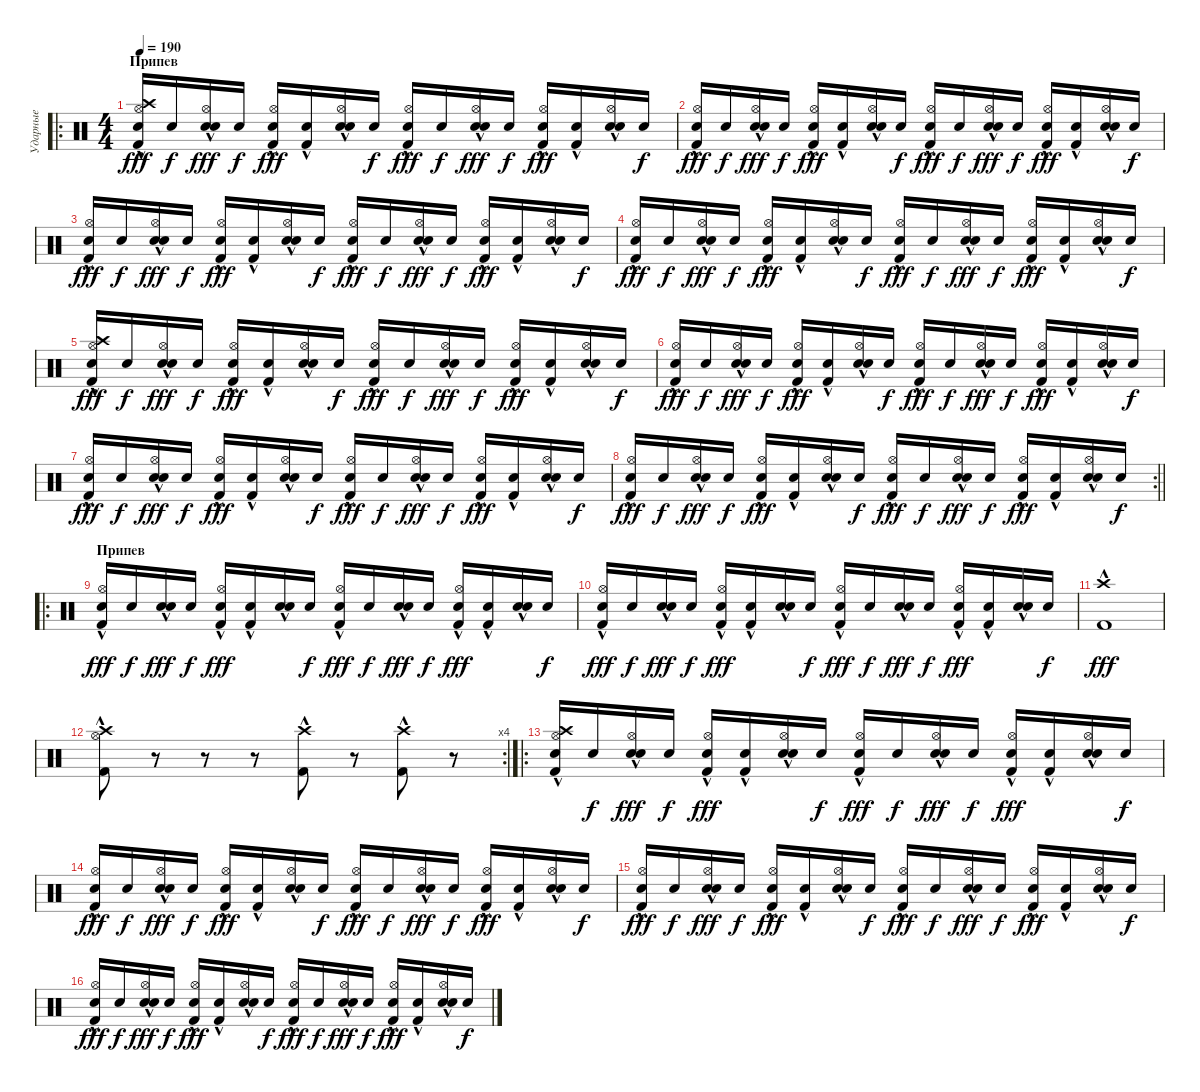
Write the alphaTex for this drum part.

\track ("Ударные" "Ударные") {instrument percussion}
\staff {score}
\articulation defaults
\ro
\ts (4 4)
\section ("" "Припев")
\tempo 190
\clef neutral
\ks c
("Snare (hit)" "Crash high (hit)"{hac} "Hi-Hat (open)"{hac} "Kick (hit) 2"{hac}).16{dy fff} "Snare (hit)".16{dy f} ("Snare (hit)" "Hi-Hat (open)"{hac} "Electric Snare (hit)"{hac}).16{dy fff} "Snare (hit)".16{dy f} ("Snare (hit)" "Hi-Hat (open)"{hac} "Kick (hit) 2"{hac}).16{dy fff} ("Snare (hit)" "Kick (hit) 2"{hac}).16 ("Snare (hit)" "Hi-Hat (open)"{hac} "Electric Snare (hit)"{hac}).16 "Snare (hit)".16{dy f} ("Snare (hit)" "Hi-Hat (open)"{hac} "Kick (hit) 2"{hac}).16{dy fff} "Snare (hit)".16{dy f} ("Snare (hit)" "Hi-Hat (open)"{hac} "Electric Snare (hit)"{hac}).16{dy fff} "Snare (hit)".16{dy f} ("Snare (hit)" "Hi-Hat (open)"{hac} "Kick (hit) 2"{hac}).16{dy fff} ("Snare (hit)" "Kick (hit) 2"{hac}).16 ("Snare (hit)" "Hi-Hat (open)"{hac} "Electric Snare (hit)"{hac}).16 "Snare (hit)".16{dy f} |
("Snare (hit)" "Hi-Hat (open)"{hac} "Kick (hit) 2"{hac}).16{dy fff} "Snare (hit)".16{dy f} ("Snare (hit)" "Hi-Hat (open)"{hac} "Electric Snare (hit)"{hac}).16{dy fff} "Snare (hit)".16{dy f} ("Snare (hit)" "Hi-Hat (open)"{hac} "Kick (hit) 2"{hac}).16{dy fff} ("Snare (hit)" "Kick (hit) 2"{hac}).16 ("Snare (hit)" "Hi-Hat (open)"{hac} "Electric Snare (hit)"{hac}).16 "Snare (hit)".16{dy f} ("Snare (hit)" "Hi-Hat (open)"{hac} "Kick (hit) 2"{hac}).16{dy fff} "Snare (hit)".16{dy f} ("Snare (hit)" "Hi-Hat (open)"{hac} "Electric Snare (hit)"{hac}).16{dy fff} "Snare (hit)".16{dy f} ("Snare (hit)" "Hi-Hat (open)"{hac} "Kick (hit) 2"{hac}).16{dy fff} ("Snare (hit)" "Kick (hit) 2"{hac}).16 ("Snare (hit)" "Hi-Hat (open)"{hac} "Electric Snare (hit)"{hac}).16 "Snare (hit)".16{dy f} |
("Snare (hit)" "Hi-Hat (open)"{hac} "Kick (hit) 2"{hac}).16{dy fff} "Snare (hit)".16{dy f} ("Snare (hit)" "Hi-Hat (open)"{hac} "Electric Snare (hit)"{hac}).16{dy fff} "Snare (hit)".16{dy f} ("Snare (hit)" "Hi-Hat (open)"{hac} "Kick (hit) 2"{hac}).16{dy fff} ("Snare (hit)" "Kick (hit) 2"{hac}).16 ("Snare (hit)" "Hi-Hat (open)"{hac} "Electric Snare (hit)"{hac}).16 "Snare (hit)".16{dy f} ("Snare (hit)" "Hi-Hat (open)"{hac} "Kick (hit) 2"{hac}).16{dy fff} "Snare (hit)".16{dy f} ("Snare (hit)" "Hi-Hat (open)"{hac} "Electric Snare (hit)"{hac}).16{dy fff} "Snare (hit)".16{dy f} ("Snare (hit)" "Hi-Hat (open)"{hac} "Kick (hit) 2"{hac}).16{dy fff} ("Snare (hit)" "Kick (hit) 2"{hac}).16 ("Snare (hit)" "Hi-Hat (open)"{hac} "Electric Snare (hit)"{hac}).16 "Snare (hit)".16{dy f} |
("Snare (hit)" "Hi-Hat (open)"{hac} "Kick (hit) 2"{hac}).16{dy fff} "Snare (hit)".16{dy f} ("Snare (hit)" "Hi-Hat (open)"{hac} "Electric Snare (hit)"{hac}).16{dy fff} "Snare (hit)".16{dy f} ("Snare (hit)" "Hi-Hat (open)"{hac} "Kick (hit) 2"{hac}).16{dy fff} ("Snare (hit)" "Kick (hit) 2"{hac}).16 ("Snare (hit)" "Hi-Hat (open)"{hac} "Electric Snare (hit)"{hac}).16 "Snare (hit)".16{dy f} ("Snare (hit)" "Hi-Hat (open)"{hac} "Kick (hit) 2"{hac}).16{dy fff} "Snare (hit)".16{dy f} ("Snare (hit)" "Hi-Hat (open)"{hac} "Electric Snare (hit)"{hac}).16{dy fff} "Snare (hit)".16{dy f} ("Snare (hit)" "Hi-Hat (open)"{hac} "Kick (hit) 2"{hac}).16{dy fff} ("Snare (hit)" "Kick (hit) 2"{hac}).16 ("Snare (hit)" "Hi-Hat (open)"{hac} "Electric Snare (hit)"{hac}).16 "Snare (hit)".16{dy f} |
("Snare (hit)" "Crash high (hit)"{hac} "Hi-Hat (open)"{hac} "Kick (hit) 2"{hac}).16{dy fff} "Snare (hit)".16{dy f} ("Snare (hit)" "Hi-Hat (open)"{hac} "Electric Snare (hit)"{hac}).16{dy fff} "Snare (hit)".16{dy f} ("Snare (hit)" "Hi-Hat (open)"{hac} "Kick (hit) 2"{hac}).16{dy fff} ("Snare (hit)" "Kick (hit) 2"{hac}).16 ("Snare (hit)" "Hi-Hat (open)"{hac} "Electric Snare (hit)"{hac}).16 "Snare (hit)".16{dy f} ("Snare (hit)" "Hi-Hat (open)"{hac} "Kick (hit) 2"{hac}).16{dy fff} "Snare (hit)".16{dy f} ("Snare (hit)" "Hi-Hat (open)"{hac} "Electric Snare (hit)"{hac}).16{dy fff} "Snare (hit)".16{dy f} ("Snare (hit)" "Hi-Hat (open)"{hac} "Kick (hit) 2"{hac}).16{dy fff} ("Snare (hit)" "Kick (hit) 2"{hac}).16 ("Snare (hit)" "Hi-Hat (open)"{hac} "Electric Snare (hit)"{hac}).16 "Snare (hit)".16{dy f} |
("Snare (hit)" "Hi-Hat (open)"{hac} "Kick (hit) 2"{hac}).16{dy fff} "Snare (hit)".16{dy f} ("Snare (hit)" "Hi-Hat (open)"{hac} "Electric Snare (hit)"{hac}).16{dy fff} "Snare (hit)".16{dy f} ("Snare (hit)" "Hi-Hat (open)"{hac} "Kick (hit) 2"{hac}).16{dy fff} ("Snare (hit)" "Kick (hit) 2"{hac}).16 ("Snare (hit)" "Hi-Hat (open)"{hac} "Electric Snare (hit)"{hac}).16 "Snare (hit)".16{dy f} ("Snare (hit)" "Hi-Hat (open)"{hac} "Kick (hit) 2"{hac}).16{dy fff} "Snare (hit)".16{dy f} ("Snare (hit)" "Hi-Hat (open)"{hac} "Electric Snare (hit)"{hac}).16{dy fff} "Snare (hit)".16{dy f} ("Snare (hit)" "Hi-Hat (open)"{hac} "Kick (hit) 2"{hac}).16{dy fff} ("Snare (hit)" "Kick (hit) 2"{hac}).16 ("Snare (hit)" "Hi-Hat (open)"{hac} "Electric Snare (hit)"{hac}).16 "Snare (hit)".16{dy f} |
("Snare (hit)" "Hi-Hat (open)"{hac} "Kick (hit) 2"{hac}).16{dy fff} "Snare (hit)".16{dy f} ("Snare (hit)" "Hi-Hat (open)"{hac} "Electric Snare (hit)"{hac}).16{dy fff} "Snare (hit)".16{dy f} ("Snare (hit)" "Hi-Hat (open)"{hac} "Kick (hit) 2"{hac}).16{dy fff} ("Snare (hit)" "Kick (hit) 2"{hac}).16 ("Snare (hit)" "Hi-Hat (open)"{hac} "Electric Snare (hit)"{hac}).16 "Snare (hit)".16{dy f} ("Snare (hit)" "Hi-Hat (open)"{hac} "Kick (hit) 2"{hac}).16{dy fff} "Snare (hit)".16{dy f} ("Snare (hit)" "Hi-Hat (open)"{hac} "Electric Snare (hit)"{hac}).16{dy fff} "Snare (hit)".16{dy f} ("Snare (hit)" "Hi-Hat (open)"{hac} "Kick (hit) 2"{hac}).16{dy fff} ("Snare (hit)" "Kick (hit) 2"{hac}).16 ("Snare (hit)" "Hi-Hat (open)"{hac} "Electric Snare (hit)"{hac}).16 "Snare (hit)".16{dy f} |
\rc 2
\barLineRight lightlight
("Snare (hit)" "Hi-Hat (open)"{hac} "Kick (hit) 2"{hac}).16{dy fff} "Snare (hit)".16{dy f} ("Snare (hit)" "Hi-Hat (open)"{hac} "Electric Snare (hit)"{hac}).16{dy fff} "Snare (hit)".16{dy f} ("Snare (hit)" "Hi-Hat (open)"{hac} "Kick (hit) 2"{hac}).16{dy fff} ("Snare (hit)" "Kick (hit) 2"{hac}).16 ("Snare (hit)" "Hi-Hat (open)"{hac} "Electric Snare (hit)"{hac}).16 "Snare (hit)".16{dy f} ("Snare (hit)" "Hi-Hat (open)"{hac} "Kick (hit) 2"{hac}).16{dy fff} "Snare (hit)".16{dy f} ("Snare (hit)" "Hi-Hat (open)"{hac} "Electric Snare (hit)"{hac}).16{dy fff} "Snare (hit)".16{dy f} ("Snare (hit)" "Hi-Hat (open)"{hac} "Kick (hit) 2"{hac}).16{dy fff} ("Snare (hit)" "Kick (hit) 2"{hac}).16 ("Snare (hit)" "Hi-Hat (open)"{hac} "Electric Snare (hit)"{hac}).16 "Snare (hit)".16{dy f} |
\ro
\section ("" "Припев")
("Snare (hit)" "Hi-Hat (open)"{hac} "Kick (hit) 2"{hac}).16{dy fff} "Snare (hit)".16{dy f} ("Snare (hit)" "Electric Snare (hit)"{hac}).16{dy fff} "Snare (hit)".16{dy f} ("Snare (hit)" "Hi-Hat (open)"{hac} "Kick (hit) 2"{hac}).16{dy fff} ("Snare (hit)" "Kick (hit) 2"{hac}).16 ("Snare (hit)" "Electric Snare (hit)"{hac}).16 "Snare (hit)".16{dy f} ("Snare (hit)" "Hi-Hat (open)"{hac} "Kick (hit) 2"{hac}).16{dy fff} "Snare (hit)".16{dy f} ("Snare (hit)" "Electric Snare (hit)"{hac}).16{dy fff} "Snare (hit)".16{dy f} ("Snare (hit)" "Hi-Hat (open)"{hac} "Kick (hit) 2"{hac}).16{dy fff} ("Snare (hit)" "Kick (hit) 2"{hac}).16 ("Snare (hit)" "Electric Snare (hit)"{hac}).16 "Snare (hit)".16{dy f} |
("Snare (hit)" "Hi-Hat (open)"{hac} "Kick (hit) 2"{hac}).16{dy fff} "Snare (hit)".16{dy f} ("Snare (hit)" "Electric Snare (hit)"{hac}).16{dy fff} "Snare (hit)".16{dy f} ("Snare (hit)" "Hi-Hat (open)"{hac} "Kick (hit) 2"{hac}).16{dy fff} ("Snare (hit)" "Kick (hit) 2"{hac}).16 ("Snare (hit)" "Electric Snare (hit)"{hac}).16 "Snare (hit)".16{dy f} ("Snare (hit)" "Hi-Hat (open)"{hac} "Kick (hit) 2"{hac}).16{dy fff} "Snare (hit)".16{dy f} ("Snare (hit)" "Electric Snare (hit)"{hac}).16{dy fff} "Snare (hit)".16{dy f} ("Snare (hit)" "Hi-Hat (open)"{hac} "Kick (hit) 2"{hac}).16{dy fff} ("Snare (hit)" "Kick (hit) 2"{hac}).16 ("Snare (hit)" "Electric Snare (hit)"{hac}).16 "Snare (hit)".16{dy f} |
("Crash high (hit)"{hac} "Kick (hit) 2"{hac}).1{dy fff} |
\rc 4
("Crash high (hit)"{hac} "Hi-Hat (open)" "Kick (hit) 2"{hac}).8 r.8 r.8 r.8 ("Crash high (hit)"{hac} "Kick (hit) 2"{hac}).8 r.8 ("Crash high (hit)"{hac} "Kick (hit) 2"{hac}).8 r.8 |
\ro
("Snare (hit)" "Crash high (hit)"{hac} "Hi-Hat (open)"{hac} "Kick (hit) 2"{hac}).16 "Snare (hit)".16{dy f} ("Snare (hit)" "Hi-Hat (open)"{hac} "Electric Snare (hit)"{hac}).16{dy fff} "Snare (hit)".16{dy f} ("Snare (hit)" "Hi-Hat (open)"{hac} "Kick (hit) 2"{hac}).16{dy fff} ("Snare (hit)" "Kick (hit) 2"{hac}).16 ("Snare (hit)" "Hi-Hat (open)"{hac} "Electric Snare (hit)"{hac}).16 "Snare (hit)".16{dy f} ("Snare (hit)" "Hi-Hat (open)"{hac} "Kick (hit) 2"{hac}).16{dy fff} "Snare (hit)".16{dy f} ("Snare (hit)" "Hi-Hat (open)"{hac} "Electric Snare (hit)"{hac}).16{dy fff} "Snare (hit)".16{dy f} ("Snare (hit)" "Hi-Hat (open)"{hac} "Kick (hit) 2"{hac}).16{dy fff} ("Snare (hit)" "Kick (hit) 2"{hac}).16 ("Snare (hit)" "Hi-Hat (open)"{hac} "Electric Snare (hit)"{hac}).16 "Snare (hit)".16{dy f} |
("Snare (hit)" "Hi-Hat (open)"{hac} "Kick (hit) 2"{hac}).16{dy fff} "Snare (hit)".16{dy f} ("Snare (hit)" "Hi-Hat (open)"{hac} "Electric Snare (hit)"{hac}).16{dy fff} "Snare (hit)".16{dy f} ("Snare (hit)" "Hi-Hat (open)"{hac} "Kick (hit) 2"{hac}).16{dy fff} ("Snare (hit)" "Kick (hit) 2"{hac}).16 ("Snare (hit)" "Hi-Hat (open)"{hac} "Electric Snare (hit)"{hac}).16 "Snare (hit)".16{dy f} ("Snare (hit)" "Hi-Hat (open)"{hac} "Kick (hit) 2"{hac}).16{dy fff} "Snare (hit)".16{dy f} ("Snare (hit)" "Hi-Hat (open)"{hac} "Electric Snare (hit)"{hac}).16{dy fff} "Snare (hit)".16{dy f} ("Snare (hit)" "Hi-Hat (open)"{hac} "Kick (hit) 2"{hac}).16{dy fff} ("Snare (hit)" "Kick (hit) 2"{hac}).16 ("Snare (hit)" "Hi-Hat (open)"{hac} "Electric Snare (hit)"{hac}).16 "Snare (hit)".16{dy f} |
("Snare (hit)" "Hi-Hat (open)"{hac} "Kick (hit) 2"{hac}).16{dy fff} "Snare (hit)".16{dy f} ("Snare (hit)" "Hi-Hat (open)"{hac} "Electric Snare (hit)"{hac}).16{dy fff} "Snare (hit)".16{dy f} ("Snare (hit)" "Hi-Hat (open)"{hac} "Kick (hit) 2"{hac}).16{dy fff} ("Snare (hit)" "Kick (hit) 2"{hac}).16 ("Snare (hit)" "Hi-Hat (open)"{hac} "Electric Snare (hit)"{hac}).16 "Snare (hit)".16{dy f} ("Snare (hit)" "Hi-Hat (open)"{hac} "Kick (hit) 2"{hac}).16{dy fff} "Snare (hit)".16{dy f} ("Snare (hit)" "Hi-Hat (open)"{hac} "Electric Snare (hit)"{hac}).16{dy fff} "Snare (hit)".16{dy f} ("Snare (hit)" "Hi-Hat (open)"{hac} "Kick (hit) 2"{hac}).16{dy fff} ("Snare (hit)" "Kick (hit) 2"{hac}).16 ("Snare (hit)" "Hi-Hat (open)"{hac} "Electric Snare (hit)"{hac}).16 "Snare (hit)".16{dy f} |
("Snare (hit)" "Hi-Hat (open)"{hac} "Kick (hit) 2"{hac}).16{dy fff} "Snare (hit)".16{dy f} ("Snare (hit)" "Hi-Hat (open)"{hac} "Electric Snare (hit)"{hac}).16{dy fff} "Snare (hit)".16{dy f} ("Snare (hit)" "Hi-Hat (open)"{hac} "Kick (hit) 2"{hac}).16{dy fff} ("Snare (hit)" "Kick (hit) 2"{hac}).16 ("Snare (hit)" "Hi-Hat (open)"{hac} "Electric Snare (hit)"{hac}).16 "Snare (hit)".16{dy f} ("Snare (hit)" "Hi-Hat (open)"{hac} "Kick (hit) 2"{hac}).16{dy fff} "Snare (hit)".16{dy f} ("Snare (hit)" "Hi-Hat (open)"{hac} "Electric Snare (hit)"{hac}).16{dy fff} "Snare (hit)".16{dy f} ("Snare (hit)" "Hi-Hat (open)"{hac} "Kick (hit) 2"{hac}).16{dy fff} ("Snare (hit)" "Kick (hit) 2"{hac}).16 ("Snare (hit)" "Hi-Hat (open)"{hac} "Electric Snare (hit)"{hac}).16 "Snare (hit)".16{dy f}
